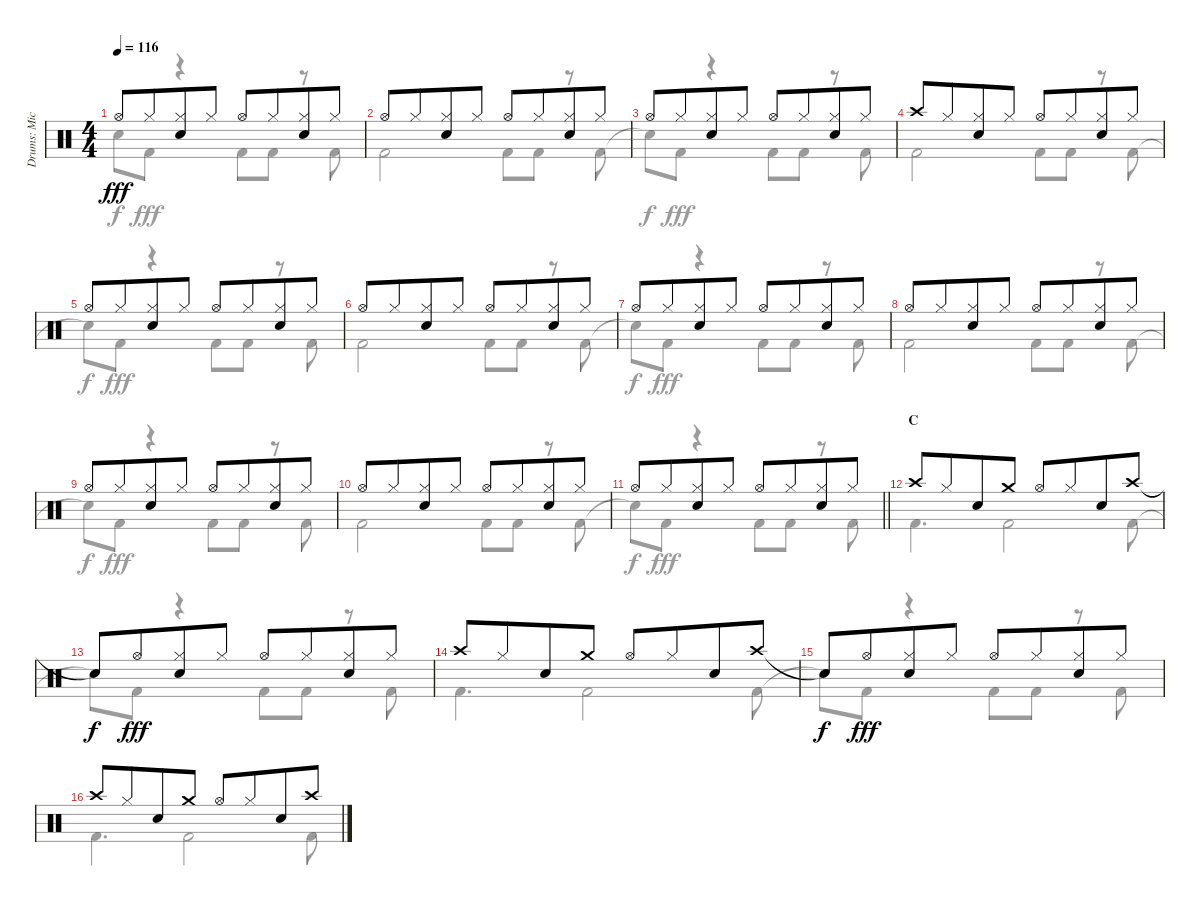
\track ("Drums: Mick" "Drums: Mic") {instrument percussion}
\staff {score}
\articulation defaults
\voice
\ts (4 4)
\tempo 116
\clef neutral
\ks c "Hi-Hat (open)".8{dy fff} "Hi-Hat (closed)".8{beam merge}
("Hi-Hat (closed)" "Snare (hit) 2").8 "Hi-Hat (closed)".8 "Hi-Hat (open)".8 "Hi-Hat (closed)".8{beam merge} ("Hi-Hat (closed)" "Snare (hit) 2").8 "Hi-Hat (closed)".8 |
"Hi-Hat (open)".8 "Hi-Hat (closed)".8{beam merge} ("Hi-Hat (closed)" "Snare (hit) 2").8 "Hi-Hat (closed)".8 "Hi-Hat (open)".8 "Hi-Hat (closed)".8{beam merge} ("Hi-Hat (closed)" "Snare (hit) 2").8 "Hi-Hat (closed)".8 |
"Hi-Hat (open)".8 "Hi-Hat (closed)".8{beam merge} ("Hi-Hat (closed)" "Snare (hit) 2").8 "Hi-Hat (closed)".8 "Hi-Hat (open)".8 "Hi-Hat (closed)".8{beam merge} ("Hi-Hat (closed)" "Snare (hit) 2").8 "Hi-Hat (closed)".8 |
"Crash high (hit)".8 "Hi-Hat (closed)".8{beam merge} ("Hi-Hat (closed)" "Snare (hit) 2").8 "Hi-Hat (closed)".8 "Hi-Hat (open)".8 "Hi-Hat (closed)".8{beam merge} ("Hi-Hat (closed)" "Snare (hit) 2").8 "Hi-Hat (closed)".8 |
"Hi-Hat (open)".8 "Hi-Hat (closed)".8{beam merge} ("Hi-Hat (closed)" "Snare (hit) 2").8 "Hi-Hat (closed)".8 "Hi-Hat (open)".8 "Hi-Hat (closed)".8{beam merge} ("Hi-Hat (closed)" "Snare (hit) 2").8 "Hi-Hat (closed)".8 |
"Hi-Hat (open)".8 "Hi-Hat (closed)".8{beam merge} ("Hi-Hat (closed)" "Snare (hit) 2").8 "Hi-Hat (closed)".8 "Hi-Hat (open)".8 "Hi-Hat (closed)".8{beam merge} ("Hi-Hat (closed)" "Snare (hit) 2").8 "Hi-Hat (closed)".8 |
"Hi-Hat (open)".8 "Hi-Hat (closed)".8{beam merge} ("Hi-Hat (closed)" "Snare (hit) 2").8 "Hi-Hat (closed)".8 "Hi-Hat (open)".8 "Hi-Hat (closed)".8{beam merge} ("Hi-Hat (closed)" "Snare (hit) 2").8 "Hi-Hat (closed)".8 |
"Hi-Hat (open)".8 "Hi-Hat (closed)".8{beam merge} ("Hi-Hat (closed)" "Snare (hit) 2").8 "Hi-Hat (closed)".8 "Hi-Hat (open)".8 "Hi-Hat (closed)".8{beam merge} ("Hi-Hat (closed)" "Snare (hit) 2").8 "Hi-Hat (closed)".8 |
"Hi-Hat (open)".8 "Hi-Hat (closed)".8{beam merge} ("Hi-Hat (closed)" "Snare (hit) 2").8 "Hi-Hat (closed)".8 "Hi-Hat (open)".8 "Hi-Hat (closed)".8{beam merge} ("Hi-Hat (closed)" "Snare (hit) 2").8 "Hi-Hat (closed)".8 |
"Hi-Hat (open)".8 "Hi-Hat (closed)".8{beam merge} ("Hi-Hat (closed)" "Snare (hit) 2").8 "Hi-Hat (closed)".8 "Hi-Hat (open)".8 "Hi-Hat (closed)".8{beam merge} ("Hi-Hat (closed)" "Snare (hit) 2").8 "Hi-Hat (closed)".8 |
\barLineRight lightlight "Hi-Hat (open)".8 "Hi-Hat (closed)".8{beam merge}
("Hi-Hat (closed)" "Snare (hit) 2").8 "Hi-Hat (closed)".8 "Hi-Hat (open)".8 "Hi-Hat (closed)".8{beam merge} ("Hi-Hat (closed)" "Snare (hit) 2").8 "Hi-Hat (closed)".8 |
\section ("" "C")
"Crash high (hit)".8 "Hi-Hat (closed)".8{beam merge} "Snare (hit) 2".8 "Crash medium (hit)".8 "Hi-Hat (open)".8 "Hi-Hat (closed)".8{beam merge} "Snare (hit) 2".8 "Crash high (hit)".8 |
"Snare (hit)"{t}.8{dy f} "Hi-Hat (open)".8{dy fff beam merge} ("Hi-Hat (closed)" "Snare (hit) 2").8 "Hi-Hat (closed)".8 "Hi-Hat (open)".8 "Hi-Hat (closed)".8{beam merge} ("Hi-Hat (closed)" "Snare (hit) 2").8 "Hi-Hat (closed)".8 |
"Crash high (hit)".8 "Hi-Hat (closed)".8{beam merge} "Snare (hit) 2".8 "Crash medium (hit)".8 "Hi-Hat (open)".8 "Hi-Hat (closed)".8{beam merge} "Snare (hit) 2".8 "Crash high (hit)".8 |
"Snare (hit)"{t}.8{dy f} "Hi-Hat (open)".8{dy fff beam merge} ("Hi-Hat (closed)" "Snare (hit) 2").8 "Hi-Hat (closed)".8 "Hi-Hat (open)".8 "Hi-Hat (closed)".8{beam merge} ("Hi-Hat (closed)" "Snare (hit) 2").8 "Hi-Hat (closed)".8 |
"Crash high (hit)".8 "Hi-Hat (closed)".8{beam merge} "Snare (hit) 2".8 "Crash medium (hit)".8 "Hi-Hat (open)".8 "Hi-Hat (closed)".8{beam merge} "Snare (hit) 2".8 "Crash high (hit)".8
\voice
\clef neutral
\ottava regular
\simile none
\ks c "Snare (hit)"{t}.8{dy f} "Kick (hit) 2".8{dy fff}
r.4 "Kick (hit) 2".8 "Kick (hit) 2".8 r.8 "Kick (hit) 2".8 |
"Kick (hit) 2".2 "Kick (hit) 2".8 "Kick (hit) 2".8 r.8 "Kick (hit) 2".8 |
"Snare (hit)"{t}.8{dy f} "Kick (hit) 2".8{dy fff} r.4 "Kick (hit) 2".8 "Kick (hit) 2".8 r.8 "Kick (hit) 2".8 |
"Kick (hit) 2".2 "Kick (hit) 2".8 "Kick (hit) 2".8 r.8 "Kick (hit) 2".8 |
"Snare (hit)"{t}.8{dy f} "Kick (hit) 2".8{dy fff} r.4 "Kick (hit) 2".8 "Kick (hit) 2".8 r.8 "Kick (hit) 2".8 |
"Kick (hit) 2".2 "Kick (hit) 2".8 "Kick (hit) 2".8 r.8 "Kick (hit) 2".8 |
"Snare (hit)"{t}.8{dy f} "Kick (hit) 2".8{dy fff} r.4 "Kick (hit) 2".8 "Kick (hit) 2".8 r.8 "Kick (hit) 2".8 |
"Kick (hit) 2".2 "Kick (hit) 2".8 "Kick (hit) 2".8 r.8 "Kick (hit) 2".8 |
"Snare (hit)"{t}.8{dy f} "Kick (hit) 2".8{dy fff} r.4 "Kick (hit) 2".8 "Kick (hit) 2".8 r.8 "Kick (hit) 2".8 |
"Kick (hit) 2".2 "Kick (hit) 2".8 "Kick (hit) 2".8 r.8 "Kick (hit) 2".8 |
\barLineRight lightlight "Snare (hit)"{t}.8{dy f} "Kick (hit) 2".8{dy fff}
r.4 "Kick (hit) 2".8 "Kick (hit) 2".8 r.8 "Kick (hit) 2".8 |
"Kick (hit) 2".4{d} "Kick (hit) 2".2 "Kick (hit) 2".8 |
"Snare (hit)"{t}.8{dy f} "Kick (hit) 2".8{dy fff} r.4 "Kick (hit) 2".8 "Kick (hit) 2".8 r.8 "Kick (hit) 2".8 |
"Kick (hit) 2".4{d} "Kick (hit) 2".2 "Kick (hit) 2".8 |
"Snare (hit)"{t}.8{dy f} "Kick (hit) 2".8{dy fff} r.4 "Kick (hit) 2".8 "Kick (hit) 2".8 r.8 "Kick (hit) 2".8 |
"Kick (hit) 2".4{d} "Kick (hit) 2".2 "Kick (hit) 2".8
